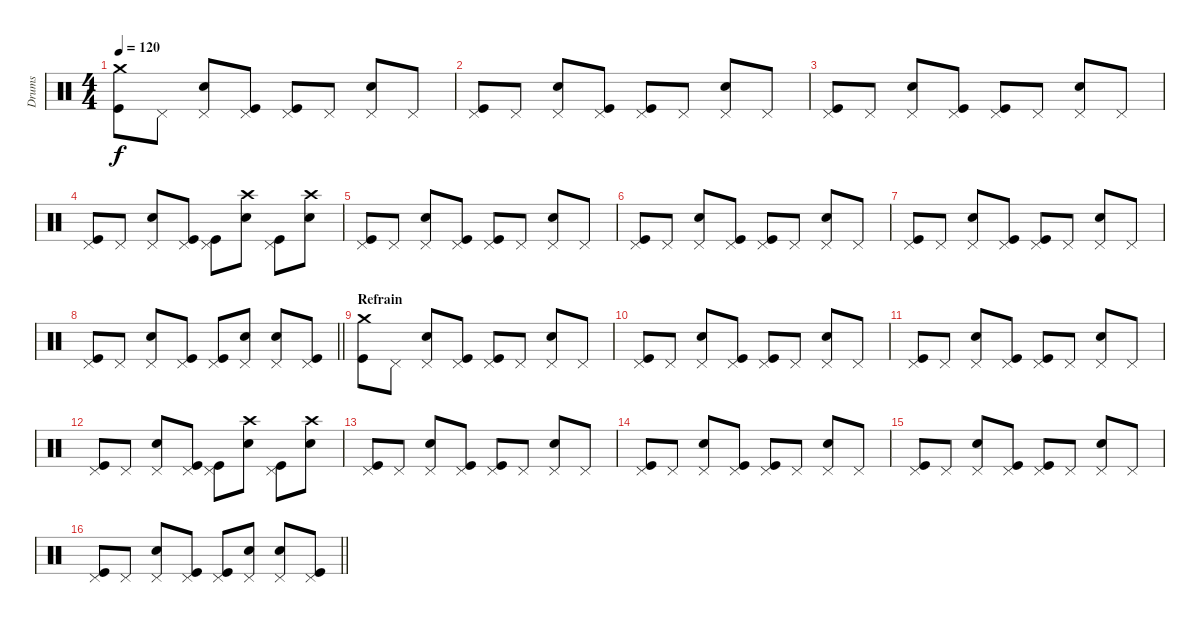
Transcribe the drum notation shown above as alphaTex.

\track ("Drums" "Drums") {instrument percussion}
\staff {score}
\articulation defaults
\ts (4 4)
\tempo 120
\clef neutral
\ks c
("Crash medium (hit)" "Kick (hit)").8{dy f} "Pedal Hi-Hat (hit)".8 ("Pedal Hi-Hat (hit)" "Snare (hit) 2").8 ("Pedal Hi-Hat (hit)" "Kick (hit)").8 ("Pedal Hi-Hat (hit)" "Kick (hit)").8 "Pedal Hi-Hat (hit)".8 ("Pedal Hi-Hat (hit)" "Snare (hit) 2").8 "Pedal Hi-Hat (hit)".8 |
("Pedal Hi-Hat (hit)" "Kick (hit)").8 "Pedal Hi-Hat (hit)".8 ("Pedal Hi-Hat (hit)" "Snare (hit) 2").8 ("Pedal Hi-Hat (hit)" "Kick (hit)").8 ("Pedal Hi-Hat (hit)" "Kick (hit)").8 "Pedal Hi-Hat (hit)".8 ("Pedal Hi-Hat (hit)" "Snare (hit) 2").8 "Pedal Hi-Hat (hit)".8 |
("Pedal Hi-Hat (hit)" "Kick (hit)").8 "Pedal Hi-Hat (hit)".8 ("Pedal Hi-Hat (hit)" "Snare (hit) 2").8 ("Pedal Hi-Hat (hit)" "Kick (hit)").8 ("Pedal Hi-Hat (hit)" "Kick (hit)").8 "Pedal Hi-Hat (hit)".8 ("Pedal Hi-Hat (hit)" "Snare (hit) 2").8 "Pedal Hi-Hat (hit)".8 |
("Pedal Hi-Hat (hit)" "Kick (hit)").8 "Pedal Hi-Hat (hit)".8 ("Pedal Hi-Hat (hit)" "Snare (hit) 2").8 ("Pedal Hi-Hat (hit)" "Kick (hit)").8 ("Pedal Hi-Hat (hit)" "Kick (hit)").8 ("Crash high (hit)" "Snare (hit) 2").8 ("Pedal Hi-Hat (hit)" "Kick (hit)").8 ("Crash high (hit)" "Snare (hit) 2").8 |
("Pedal Hi-Hat (hit)" "Kick (hit)").8 "Pedal Hi-Hat (hit)".8 ("Pedal Hi-Hat (hit)" "Snare (hit) 2").8 ("Pedal Hi-Hat (hit)" "Kick (hit)").8 ("Pedal Hi-Hat (hit)" "Kick (hit)").8 "Pedal Hi-Hat (hit)".8 ("Pedal Hi-Hat (hit)" "Snare (hit) 2").8 "Pedal Hi-Hat (hit)".8 |
("Pedal Hi-Hat (hit)" "Kick (hit)").8 "Pedal Hi-Hat (hit)".8 ("Pedal Hi-Hat (hit)" "Snare (hit) 2").8 ("Pedal Hi-Hat (hit)" "Kick (hit)").8 ("Pedal Hi-Hat (hit)" "Kick (hit)").8 "Pedal Hi-Hat (hit)".8 ("Pedal Hi-Hat (hit)" "Snare (hit) 2").8 "Pedal Hi-Hat (hit)".8 |
("Pedal Hi-Hat (hit)" "Kick (hit)").8 "Pedal Hi-Hat (hit)".8 ("Pedal Hi-Hat (hit)" "Snare (hit) 2").8 ("Pedal Hi-Hat (hit)" "Kick (hit)").8 ("Pedal Hi-Hat (hit)" "Kick (hit)").8 "Pedal Hi-Hat (hit)".8 ("Pedal Hi-Hat (hit)" "Snare (hit) 2").8 "Pedal Hi-Hat (hit)".8 |
\barLineRight lightlight
("Pedal Hi-Hat (hit)" "Kick (hit)").8 "Pedal Hi-Hat (hit)".8 ("Pedal Hi-Hat (hit)" "Snare (hit) 2").8 ("Pedal Hi-Hat (hit)" "Kick (hit)").8 ("Pedal Hi-Hat (hit)" "Kick (hit)").8 ("Pedal Hi-Hat (hit)" "Snare (hit) 2").8 ("Pedal Hi-Hat (hit)" "Snare (hit) 2").8 ("Pedal Hi-Hat (hit)" "Kick (hit)").8 |
\section ("" "Refrain")
("Crash medium (hit)" "Kick (hit)").8 "Pedal Hi-Hat (hit)".8 ("Pedal Hi-Hat (hit)" "Snare (hit) 2").8 ("Pedal Hi-Hat (hit)" "Kick (hit)").8 ("Pedal Hi-Hat (hit)" "Kick (hit)").8 "Pedal Hi-Hat (hit)".8 ("Pedal Hi-Hat (hit)" "Snare (hit) 2").8 "Pedal Hi-Hat (hit)".8 |
("Pedal Hi-Hat (hit)" "Kick (hit)").8 "Pedal Hi-Hat (hit)".8 ("Pedal Hi-Hat (hit)" "Snare (hit) 2").8 ("Pedal Hi-Hat (hit)" "Kick (hit)").8 ("Pedal Hi-Hat (hit)" "Kick (hit)").8 "Pedal Hi-Hat (hit)".8 ("Pedal Hi-Hat (hit)" "Snare (hit) 2").8 "Pedal Hi-Hat (hit)".8 |
("Pedal Hi-Hat (hit)" "Kick (hit)").8 "Pedal Hi-Hat (hit)".8 ("Pedal Hi-Hat (hit)" "Snare (hit) 2").8 ("Pedal Hi-Hat (hit)" "Kick (hit)").8 ("Pedal Hi-Hat (hit)" "Kick (hit)").8 "Pedal Hi-Hat (hit)".8 ("Pedal Hi-Hat (hit)" "Snare (hit) 2").8 "Pedal Hi-Hat (hit)".8 |
("Pedal Hi-Hat (hit)" "Kick (hit)").8 "Pedal Hi-Hat (hit)".8 ("Pedal Hi-Hat (hit)" "Snare (hit) 2").8 ("Pedal Hi-Hat (hit)" "Kick (hit)").8 ("Pedal Hi-Hat (hit)" "Kick (hit)").8 ("Crash high (hit)" "Snare (hit) 2").8 ("Pedal Hi-Hat (hit)" "Kick (hit)").8 ("Crash high (hit)" "Snare (hit) 2").8 |
("Pedal Hi-Hat (hit)" "Kick (hit)").8 "Pedal Hi-Hat (hit)".8 ("Pedal Hi-Hat (hit)" "Snare (hit) 2").8 ("Pedal Hi-Hat (hit)" "Kick (hit)").8 ("Pedal Hi-Hat (hit)" "Kick (hit)").8 "Pedal Hi-Hat (hit)".8 ("Pedal Hi-Hat (hit)" "Snare (hit) 2").8 "Pedal Hi-Hat (hit)".8 |
("Pedal Hi-Hat (hit)" "Kick (hit)").8 "Pedal Hi-Hat (hit)".8 ("Pedal Hi-Hat (hit)" "Snare (hit) 2").8 ("Pedal Hi-Hat (hit)" "Kick (hit)").8 ("Pedal Hi-Hat (hit)" "Kick (hit)").8 "Pedal Hi-Hat (hit)".8 ("Pedal Hi-Hat (hit)" "Snare (hit) 2").8 "Pedal Hi-Hat (hit)".8 |
("Pedal Hi-Hat (hit)" "Kick (hit)").8 "Pedal Hi-Hat (hit)".8 ("Pedal Hi-Hat (hit)" "Snare (hit) 2").8 ("Pedal Hi-Hat (hit)" "Kick (hit)").8 ("Pedal Hi-Hat (hit)" "Kick (hit)").8 "Pedal Hi-Hat (hit)".8 ("Pedal Hi-Hat (hit)" "Snare (hit) 2").8 "Pedal Hi-Hat (hit)".8 |
\barLineRight lightlight
("Pedal Hi-Hat (hit)" "Kick (hit)").8 "Pedal Hi-Hat (hit)".8 ("Pedal Hi-Hat (hit)" "Snare (hit) 2").8 ("Pedal Hi-Hat (hit)" "Kick (hit)").8 ("Pedal Hi-Hat (hit)" "Kick (hit)").8 ("Pedal Hi-Hat (hit)" "Snare (hit) 2").8 ("Pedal Hi-Hat (hit)" "Snare (hit) 2").8 ("Pedal Hi-Hat (hit)" "Kick (hit)").8
